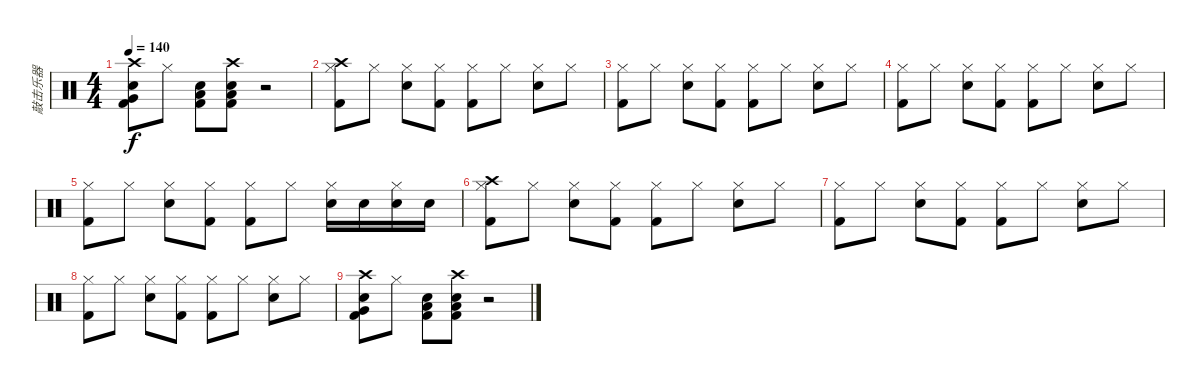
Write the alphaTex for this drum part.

\track ("敲击乐器" "敲击乐器") {instrument percussion}
\staff {score}
\articulation defaults
\ts (4 4)
\tempo 140
\clef neutral
\ks c
("Electric Snare (hit)" "Very Low Tom (hit)" "Kick (hit) 2" "Crash high (hit)").8{dy f} "Hi-Hat (closed)".8 ("Low Floor Tom (hit)" "Electric Snare (hit)" "Kick (hit) 2").8 ("Electric Snare (hit)" "Low Floor Tom (hit)" "Kick (hit) 2" "Crash high (hit)").8 r.2 |
("Kick (hit) 2" "Hi-Hat (closed)" "Crash high (hit)").8 "Hi-Hat (closed)".8 ("Hi-Hat (closed)" "Electric Snare (hit)").8 ("Hi-Hat (closed)" "Kick (hit) 2").8 ("Hi-Hat (closed)" "Kick (hit) 2").8 "Hi-Hat (closed)".8 ("Hi-Hat (closed)" "Electric Snare (hit)").8 "Hi-Hat (closed)".8 |
("Kick (hit) 2" "Hi-Hat (closed)").8 "Hi-Hat (closed)".8 ("Hi-Hat (closed)" "Electric Snare (hit)").8 ("Hi-Hat (closed)" "Kick (hit) 2").8 ("Hi-Hat (closed)" "Kick (hit) 2").8 "Hi-Hat (closed)".8 ("Hi-Hat (closed)" "Electric Snare (hit)").8 "Hi-Hat (closed)".8 |
("Kick (hit) 2" "Hi-Hat (closed)").8 "Hi-Hat (closed)".8 ("Hi-Hat (closed)" "Electric Snare (hit)").8 ("Hi-Hat (closed)" "Kick (hit) 2").8 ("Hi-Hat (closed)" "Kick (hit) 2").8 "Hi-Hat (closed)".8 ("Hi-Hat (closed)" "Electric Snare (hit)").8 "Hi-Hat (closed)".8 |
("Kick (hit) 2" "Hi-Hat (closed)").8 "Hi-Hat (closed)".8 ("Hi-Hat (closed)" "Electric Snare (hit)").8 ("Hi-Hat (closed)" "Kick (hit) 2").8 ("Hi-Hat (closed)" "Kick (hit) 2").8 "Hi-Hat (closed)".8 ("Hi-Hat (closed)" "Electric Snare (hit)").16 "Electric Snare (hit)".16 ("Hi-Hat (closed)" "Electric Snare (hit)").16 "Electric Snare (hit)".16 |
("Kick (hit) 2" "Hi-Hat (closed)" "Crash high (hit)").8 "Hi-Hat (closed)".8 ("Hi-Hat (closed)" "Electric Snare (hit)").8 ("Hi-Hat (closed)" "Kick (hit) 2").8 ("Hi-Hat (closed)" "Kick (hit) 2").8 "Hi-Hat (closed)".8 ("Hi-Hat (closed)" "Electric Snare (hit)").8 "Hi-Hat (closed)".8 |
("Kick (hit) 2" "Hi-Hat (closed)").8 "Hi-Hat (closed)".8 ("Hi-Hat (closed)" "Electric Snare (hit)").8 ("Hi-Hat (closed)" "Kick (hit) 2").8 ("Hi-Hat (closed)" "Kick (hit) 2").8 "Hi-Hat (closed)".8 ("Hi-Hat (closed)" "Electric Snare (hit)").8 "Hi-Hat (closed)".8 |
("Kick (hit) 2" "Hi-Hat (closed)").8 "Hi-Hat (closed)".8 ("Hi-Hat (closed)" "Electric Snare (hit)").8 ("Hi-Hat (closed)" "Kick (hit) 2").8 ("Hi-Hat (closed)" "Kick (hit) 2").8 "Hi-Hat (closed)".8 ("Hi-Hat (closed)" "Electric Snare (hit)").8 "Hi-Hat (closed)".8 |
("Electric Snare (hit)" "Very Low Tom (hit)" "Kick (hit) 2" "Crash high (hit)").8 "Hi-Hat (closed)".8 ("Low Floor Tom (hit)" "Electric Snare (hit)" "Kick (hit) 2").8 ("Electric Snare (hit)" "Low Floor Tom (hit)" "Kick (hit) 2" "Crash high (hit)").8 r.2
